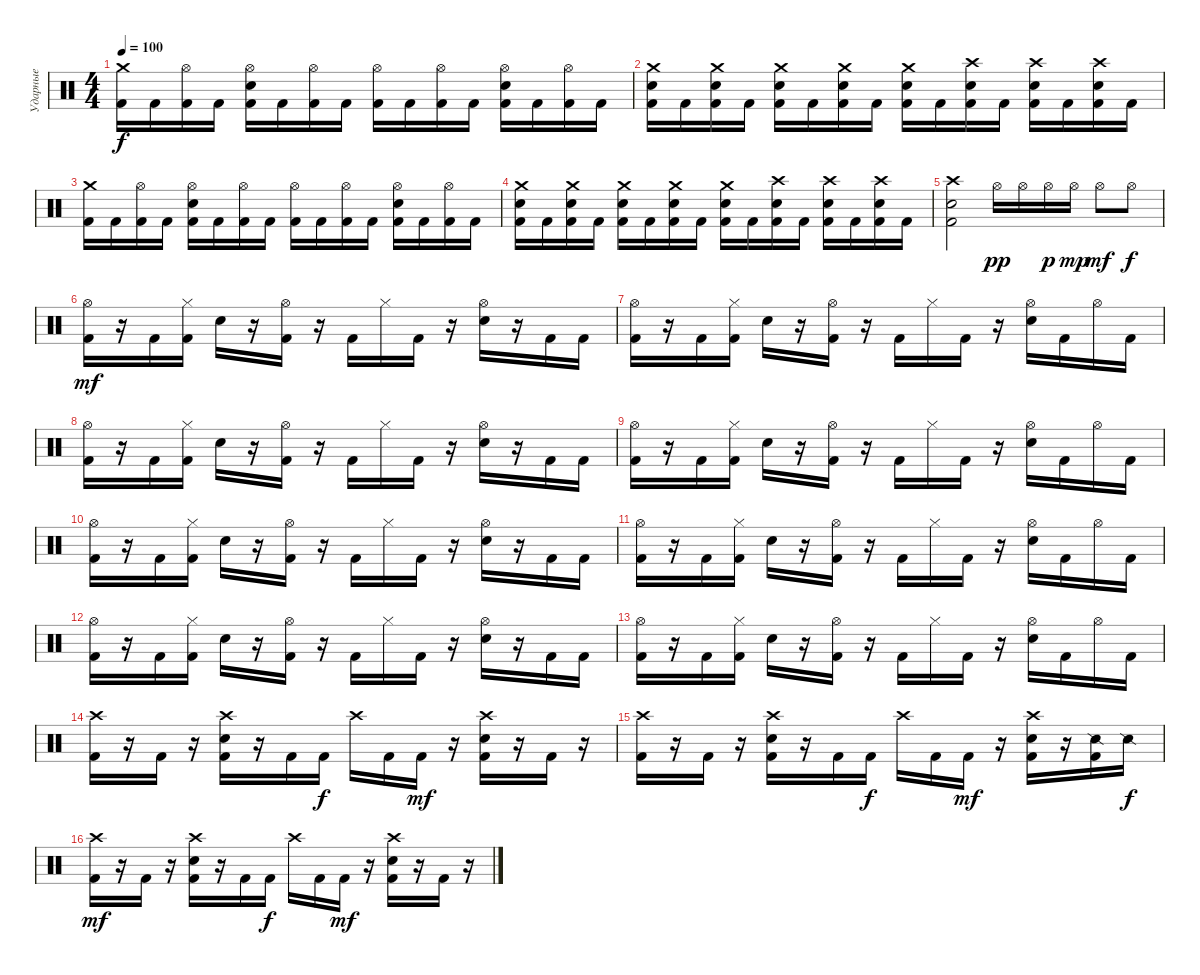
\track ("Ударные" "Ударные") {instrument percussion}
\staff {score}
\articulation defaults
\ts (4 4)
\tempo 100
\clef neutral
\ks c
("Crash medium (hit)" "Kick (hit) 2").16{dy f} "Kick (hit) 2".16 ("Hi-Hat (open)" "Kick (hit) 2").16 "Kick (hit) 2".16 ("Hi-Hat (open)" "Electric Snare (hit)" "Kick (hit) 2").16 "Kick (hit) 2".16 ("Hi-Hat (open)" "Kick (hit) 2").16 "Kick (hit) 2".16 ("Hi-Hat (open)" "Kick (hit) 2").16 "Kick (hit) 2".16 ("Hi-Hat (open)" "Kick (hit) 2").16 "Kick (hit) 2".16 ("Hi-Hat (open)" "Electric Snare (hit)" "Kick (hit) 2").16 "Kick (hit) 2".16 ("Hi-Hat (open)" "Kick (hit) 2").16 "Kick (hit) 2".16 |
("Crash medium (hit)" "Electric Snare (hit)" "Kick (hit) 2").16 "Kick (hit) 2".16 ("Crash medium (hit)" "Electric Snare (hit)" "Kick (hit) 2").16 "Kick (hit) 2".16 ("Crash medium (hit)" "Electric Snare (hit)" "Kick (hit) 2").16 "Kick (hit) 2".16 ("Crash medium (hit)" "Electric Snare (hit)" "Kick (hit) 2").16 "Kick (hit) 2".16 ("Crash medium (hit)" "Electric Snare (hit)" "Kick (hit) 2").16 "Kick (hit) 2".16 ("Crash high (hit)" "Electric Snare (hit)" "Kick (hit) 2").16 "Kick (hit) 2".16 ("Crash high (hit)" "Electric Snare (hit)" "Kick (hit) 2").16 "Kick (hit) 2".16 ("Crash high (hit)" "Electric Snare (hit)" "Kick (hit) 2").16 "Kick (hit) 2".16 |
("Crash medium (hit)" "Kick (hit) 2").16 "Kick (hit) 2".16 ("Hi-Hat (open)" "Kick (hit) 2").16 "Kick (hit) 2".16 ("Hi-Hat (open)" "Electric Snare (hit)" "Kick (hit) 2").16 "Kick (hit) 2".16 ("Hi-Hat (open)" "Kick (hit) 2").16 "Kick (hit) 2".16 ("Hi-Hat (open)" "Kick (hit) 2").16 "Kick (hit) 2".16 ("Hi-Hat (open)" "Kick (hit) 2").16 "Kick (hit) 2".16 ("Hi-Hat (open)" "Electric Snare (hit)" "Kick (hit) 2").16 "Kick (hit) 2".16 ("Hi-Hat (open)" "Kick (hit) 2").16 "Kick (hit) 2".16 |
("Crash medium (hit)" "Electric Snare (hit)" "Kick (hit) 2").16 "Kick (hit) 2".16 ("Crash medium (hit)" "Electric Snare (hit)" "Kick (hit) 2").16 "Kick (hit) 2".16 ("Crash medium (hit)" "Electric Snare (hit)" "Kick (hit) 2").16 "Kick (hit) 2".16 ("Crash medium (hit)" "Electric Snare (hit)" "Kick (hit) 2").16 "Kick (hit) 2".16 ("Crash medium (hit)" "Electric Snare (hit)" "Kick (hit) 2").16 "Kick (hit) 2".16 ("Crash high (hit)" "Electric Snare (hit)" "Kick (hit) 2").16 "Kick (hit) 2".16 ("Crash high (hit)" "Electric Snare (hit)" "Kick (hit) 2").16 "Kick (hit) 2".16 ("Crash high (hit)" "Electric Snare (hit)" "Kick (hit) 2").16 "Kick (hit) 2".16 |
("Crash high (hit)" "Electric Snare (hit)" "Kick (hit) 2").2 "Hi-Hat (open)".16{dy pp} "Hi-Hat (open)".16 "Hi-Hat (open)".16{dy p} "Hi-Hat (open)".16{dy mp} "Hi-Hat (open)".8{dy mf} "Hi-Hat (open)".8{dy f} |
("Hi-Hat (open)" "Kick (hit) 2").16{dy mf} r.16 "Kick (hit) 2".16 ("Hi-Hat (closed)" "Kick (hit) 2").16 "Electric Snare (hit)".16 r.16 ("Hi-Hat (open)" "Kick (hit) 2").16 r.16 "Kick (hit) 2".16 "Hi-Hat (closed)".16 "Kick (hit) 2".16 r.16 ("Hi-Hat (open)" "Electric Snare (hit)").16 r.16 "Kick (hit) 2".16 "Kick (hit) 2".16 |
("Hi-Hat (open)" "Kick (hit) 2").16 r.16 "Kick (hit) 2".16 ("Hi-Hat (closed)" "Kick (hit) 2").16 "Electric Snare (hit)".16 r.16 ("Hi-Hat (open)" "Kick (hit) 2").16 r.16 "Kick (hit) 2".16 "Hi-Hat (closed)".16 "Kick (hit) 2".16 r.16 ("Hi-Hat (open)" "Electric Snare (hit)").16 "Kick (hit) 2".16 "Hi-Hat (open)".16 "Kick (hit) 2".16 |
("Hi-Hat (open)" "Kick (hit) 2").16 r.16 "Kick (hit) 2".16 ("Hi-Hat (closed)" "Kick (hit) 2").16 "Electric Snare (hit)".16 r.16 ("Hi-Hat (open)" "Kick (hit) 2").16 r.16 "Kick (hit) 2".16 "Hi-Hat (closed)".16 "Kick (hit) 2".16 r.16 ("Hi-Hat (open)" "Electric Snare (hit)").16 r.16 "Kick (hit) 2".16 "Kick (hit) 2".16 |
("Hi-Hat (open)" "Kick (hit) 2").16 r.16 "Kick (hit) 2".16 ("Hi-Hat (closed)" "Kick (hit) 2").16 "Electric Snare (hit)".16 r.16 ("Hi-Hat (open)" "Kick (hit) 2").16 r.16 "Kick (hit) 2".16 "Hi-Hat (closed)".16 "Kick (hit) 2".16 r.16 ("Hi-Hat (open)" "Electric Snare (hit)").16 "Kick (hit) 2".16 "Hi-Hat (open)".16 "Kick (hit) 2".16 |
("Hi-Hat (open)" "Kick (hit) 2").16 r.16 "Kick (hit) 2".16 ("Hi-Hat (closed)" "Kick (hit) 2").16 "Electric Snare (hit)".16 r.16 ("Hi-Hat (open)" "Kick (hit) 2").16 r.16 "Kick (hit) 2".16 "Hi-Hat (closed)".16 "Kick (hit) 2".16 r.16 ("Hi-Hat (open)" "Electric Snare (hit)").16 r.16 "Kick (hit) 2".16 "Kick (hit) 2".16 |
("Hi-Hat (open)" "Kick (hit) 2").16 r.16 "Kick (hit) 2".16 ("Hi-Hat (closed)" "Kick (hit) 2").16 "Electric Snare (hit)".16 r.16 ("Hi-Hat (open)" "Kick (hit) 2").16 r.16 "Kick (hit) 2".16 "Hi-Hat (closed)".16 "Kick (hit) 2".16 r.16 ("Hi-Hat (open)" "Electric Snare (hit)").16 "Kick (hit) 2".16 "Hi-Hat (open)".16 "Kick (hit) 2".16 |
("Hi-Hat (open)" "Kick (hit) 2").16 r.16 "Kick (hit) 2".16 ("Hi-Hat (closed)" "Kick (hit) 2").16 "Electric Snare (hit)".16 r.16 ("Hi-Hat (open)" "Kick (hit) 2").16 r.16 "Kick (hit) 2".16 "Hi-Hat (closed)".16 "Kick (hit) 2".16 r.16 ("Hi-Hat (open)" "Electric Snare (hit)").16 r.16 "Kick (hit) 2".16 "Kick (hit) 2".16 |
("Hi-Hat (open)" "Kick (hit) 2").16 r.16 "Kick (hit) 2".16 ("Hi-Hat (closed)" "Kick (hit) 2").16 "Electric Snare (hit)".16 r.16 ("Hi-Hat (open)" "Kick (hit) 2").16 r.16 "Kick (hit) 2".16 "Hi-Hat (closed)".16 "Kick (hit) 2".16 r.16 ("Hi-Hat (open)" "Electric Snare (hit)").16 "Kick (hit) 2".16 "Hi-Hat (open)".16 "Kick (hit) 2".16 |
("Crash high (hit)" "Kick (hit) 2").16 r.16 "Kick (hit) 2".16 r.16 ("Crash high (hit)" "Electric Snare (hit)" "Kick (hit) 2").16 r.16 "Kick (hit) 2".16 "Kick (hit) 2".16{dy f} "Crash high (hit)".16 "Kick (hit) 2".16 "Kick (hit) 2".16{dy mf} r.16 ("Crash high (hit)" "Electric Snare (hit)" "Kick (hit) 2").16 r.16 "Kick (hit) 2".16 r.16 |
("Crash high (hit)" "Kick (hit) 2").16 r.16 "Kick (hit) 2".16 r.16 ("Crash high (hit)" "Electric Snare (hit)" "Kick (hit) 2").16 r.16 "Kick (hit) 2".16 "Kick (hit) 2".16{dy f} "Crash high (hit)".16 "Kick (hit) 2".16 "Kick (hit) 2".16{dy mf} r.16 ("Crash high (hit)" "Electric Snare (hit)" "Kick (hit) 2").16 r.16 ("Snare (side stick) 2" "Kick (hit) 2").16 "Snare (side stick) 2".16{dy f} |
("Crash high (hit)" "Kick (hit) 2").16{dy mf} r.16 "Kick (hit) 2".16 r.16 ("Crash high (hit)" "Electric Snare (hit)" "Kick (hit) 2").16 r.16 "Kick (hit) 2".16 "Kick (hit) 2".16{dy f} "Crash high (hit)".16 "Kick (hit) 2".16 "Kick (hit) 2".16{dy mf} r.16 ("Crash high (hit)" "Electric Snare (hit)" "Kick (hit) 2").16 r.16 "Kick (hit) 2".16 r.16
